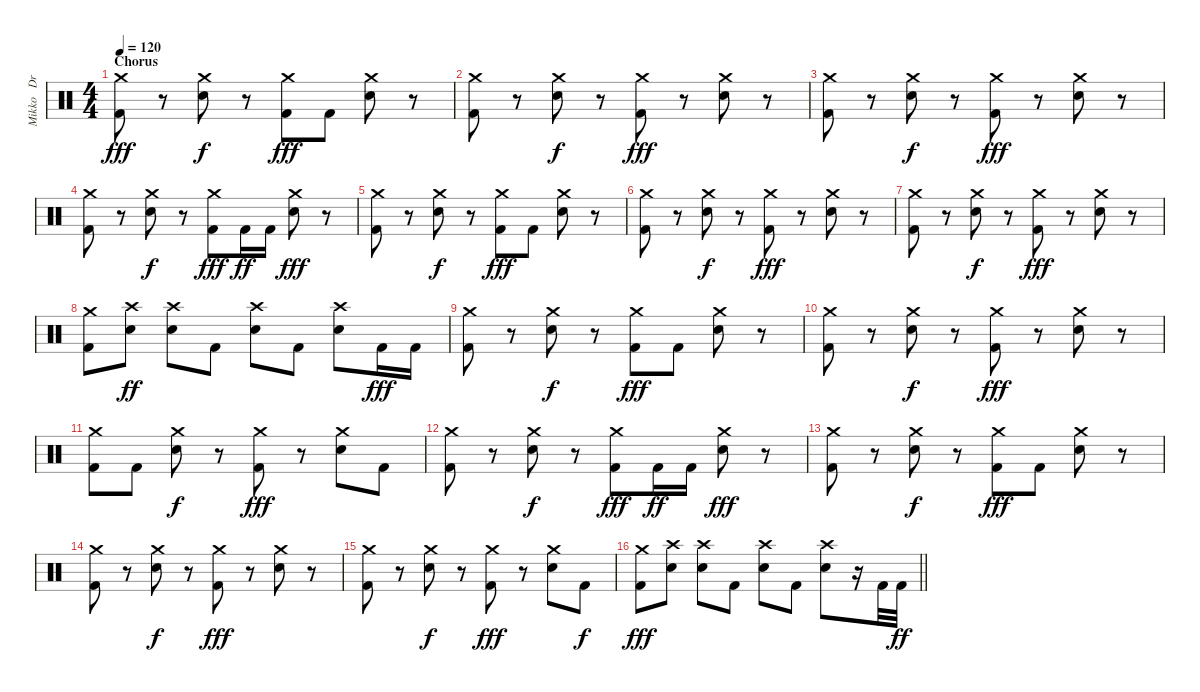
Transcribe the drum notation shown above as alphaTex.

\track ("Mikko   Drums" "Mikko   Dr") {instrument percussion}
\staff {score}
\articulation defaults
\ts (4 4)
\section ("" "Chorus")
\tempo 120
\clef neutral
\ks c
("Crash medium (hit)" "Kick (hit) 2").8{dy fff} r.8 ("Crash medium (hit)" "Snare (hit) 2").8{dy f} r.8 ("Crash medium (hit)" "Kick (hit) 2").8{dy fff} "Kick (hit) 2".8 ("Crash medium (hit)" "Snare (hit) 2").8 r.8 |
("Crash medium (hit)" "Kick (hit) 2").8 r.8 ("Crash medium (hit)" "Snare (hit) 2").8{dy f} r.8 ("Crash medium (hit)" "Kick (hit) 2").8{dy fff} r.8 ("Crash medium (hit)" "Snare (hit) 2").8 r.8 |
("Crash medium (hit)" "Kick (hit) 2").8 r.8 ("Crash medium (hit)" "Snare (hit) 2").8{dy f} r.8 ("Crash medium (hit)" "Kick (hit) 2").8{dy fff} r.8 ("Crash medium (hit)" "Snare (hit) 2").8 r.8 |
("Crash medium (hit)" "Kick (hit) 2").8 r.8 ("Crash medium (hit)" "Snare (hit) 2").8{dy f} r.8 ("Crash medium (hit)" "Kick (hit) 2").8{dy fff} "Kick (hit) 2".16{dy ff} "Kick (hit) 2".16 ("Crash medium (hit)" "Snare (hit) 2").8{dy fff} r.8 |
("Crash medium (hit)" "Kick (hit) 2").8 r.8 ("Crash medium (hit)" "Snare (hit) 2").8{dy f} r.8 ("Crash medium (hit)" "Kick (hit) 2").8{dy fff} "Kick (hit) 2".8 ("Crash medium (hit)" "Snare (hit) 2").8 r.8 |
("Crash medium (hit)" "Kick (hit) 2").8 r.8 ("Crash medium (hit)" "Snare (hit) 2").8{dy f} r.8 ("Crash medium (hit)" "Kick (hit) 2").8{dy fff} r.8 ("Crash medium (hit)" "Snare (hit) 2").8 r.8 |
("Crash medium (hit)" "Kick (hit) 2").8 r.8 ("Crash medium (hit)" "Snare (hit) 2").8{dy f} r.8 ("Crash medium (hit)" "Kick (hit) 2").8{dy fff} r.8 ("Crash medium (hit)" "Snare (hit) 2").8 r.8 |
("Crash medium (hit)" "Kick (hit) 2").8 ("Crash high (hit)" "Snare (hit) 2").8{dy ff} ("Crash high (hit)" "Snare (hit) 2").8 "Kick (hit) 2".8 ("Crash high (hit)" "Snare (hit) 2").8 "Kick (hit) 2".8 ("Crash high (hit)" "Snare (hit) 2").8 "Kick (hit) 2".16{dy fff} "Kick (hit) 2".16 |
("Crash medium (hit)" "Kick (hit) 2").8 r.8 ("Crash medium (hit)" "Snare (hit) 2").8{dy f} r.8 ("Crash medium (hit)" "Kick (hit) 2").8{dy fff} "Kick (hit) 2".8 ("Crash medium (hit)" "Snare (hit) 2").8 r.8 |
("Crash medium (hit)" "Kick (hit) 2").8 r.8 ("Crash medium (hit)" "Snare (hit) 2").8{dy f} r.8 ("Crash medium (hit)" "Kick (hit) 2").8{dy fff} r.8 ("Crash medium (hit)" "Snare (hit) 2").8 r.8 |
("Crash medium (hit)" "Kick (hit) 2").8 "Kick (hit) 2".8 ("Crash medium (hit)" "Snare (hit) 2").8{dy f} r.8 ("Crash medium (hit)" "Kick (hit) 2").8{dy fff} r.8 ("Crash medium (hit)" "Snare (hit) 2").8 "Kick (hit) 2".8 |
("Crash medium (hit)" "Kick (hit) 2").8 r.8 ("Crash medium (hit)" "Snare (hit) 2").8{dy f} r.8 ("Crash medium (hit)" "Kick (hit) 2").8{dy fff} "Kick (hit) 2".16{dy ff} "Kick (hit) 2".16 ("Crash medium (hit)" "Snare (hit) 2").8{dy fff} r.8 |
("Crash medium (hit)" "Kick (hit) 2").8 r.8 ("Crash medium (hit)" "Snare (hit) 2").8{dy f} r.8 ("Crash medium (hit)" "Kick (hit) 2").8{dy fff} "Kick (hit) 2".8 ("Crash medium (hit)" "Snare (hit) 2").8 r.8 |
("Crash medium (hit)" "Kick (hit) 2").8 r.8 ("Crash medium (hit)" "Snare (hit) 2").8{dy f} r.8 ("Crash medium (hit)" "Kick (hit) 2").8{dy fff} r.8 ("Crash medium (hit)" "Snare (hit) 2").8 r.8 |
("Crash medium (hit)" "Kick (hit) 2").8 r.8 ("Crash medium (hit)" "Snare (hit) 2").8{dy f} r.8 ("Crash medium (hit)" "Kick (hit) 2").8{dy fff} r.8 ("Crash medium (hit)" "Snare (hit) 2").8 "Kick (hit) 2".8{dy f} |
\barLineRight lightlight
("Crash medium (hit)" "Kick (hit) 2").8{dy fff} ("Crash high (hit)" "Snare (hit) 2").8 ("Crash high (hit)" "Snare (hit) 2").8 "Kick (hit) 2".8 ("Crash high (hit)" "Snare (hit) 2").8 "Kick (hit) 2".8 ("Crash high (hit)" "Snare (hit) 2").8 r.16 "Kick (hit) 2".32 "Kick (hit) 2".32{dy ff}
